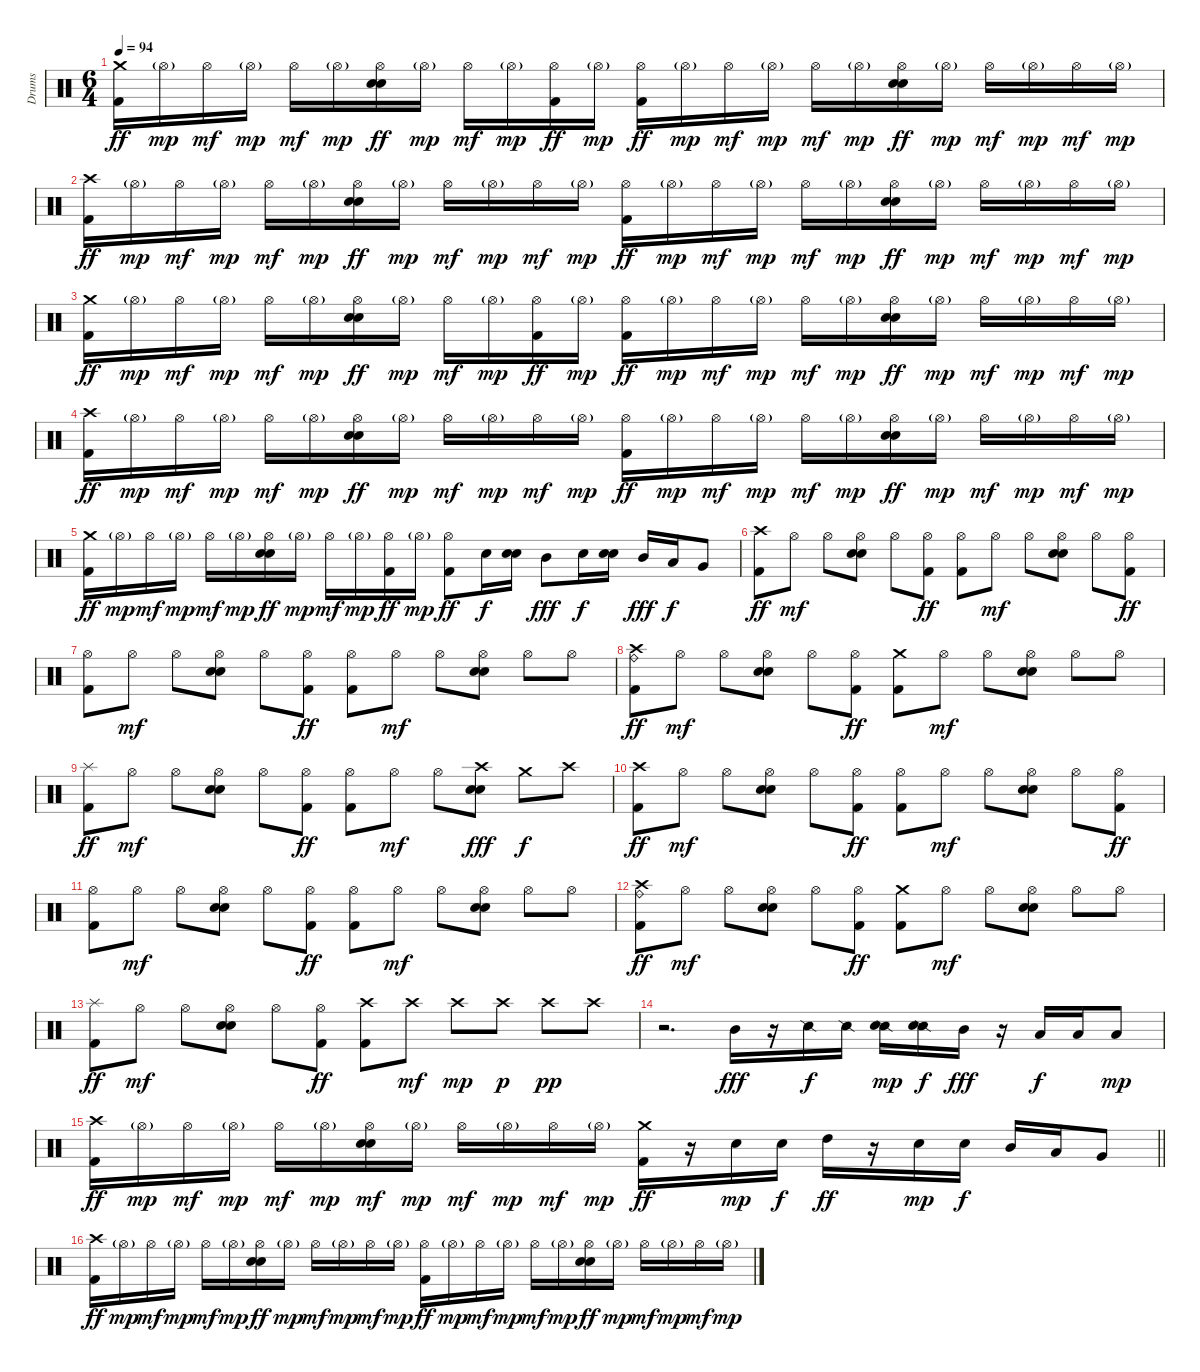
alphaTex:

\track ("Drums" "Drums") {instrument percussion}
\staff {score}
\articulation defaults
\ts (6 4)
\tempo 94
\clef neutral
\ks c
("Crash medium (hit)" "Kick (hit) 2").16{dy ff} "Hi-Hat (open)"{g}.16{dy mp} "Hi-Hat (open)".16{dy mf} "Hi-Hat (open)"{g}.16{dy mp} "Hi-Hat (open)".16{dy mf} "Hi-Hat (open)"{g}.16{dy mp} ("Hi-Hat (open)" "Electric Snare (hit)" "Metronome (bell)").16{dy ff} "Hi-Hat (open)"{g}.16{dy mp} "Hi-Hat (open)".16{dy mf} "Hi-Hat (open)"{g}.16{dy mp} ("Hi-Hat (open)" "Kick (hit) 2").16{dy ff} "Hi-Hat (open)"{g}.16{dy mp} ("Hi-Hat (open)" "Kick (hit) 2").16{dy ff} "Hi-Hat (open)"{g}.16{dy mp} "Hi-Hat (open)".16{dy mf} "Hi-Hat (open)"{g}.16{dy mp} "Hi-Hat (open)".16{dy mf} "Hi-Hat (open)"{g}.16{dy mp} ("Hi-Hat (open)" "Electric Snare (hit)" "Metronome (bell)").16{dy ff} "Hi-Hat (open)"{g}.16{dy mp} "Hi-Hat (open)".16{dy mf} "Hi-Hat (open)"{g}.16{dy mp} "Hi-Hat (open)".16{dy mf} "Hi-Hat (open)"{g}.16{dy mp} |
("Crash high (hit)" "Kick (hit) 2").16{dy ff} "Hi-Hat (open)"{g}.16{dy mp} "Hi-Hat (open)".16{dy mf} "Hi-Hat (open)"{g}.16{dy mp} "Hi-Hat (open)".16{dy mf} "Hi-Hat (open)"{g}.16{dy mp} ("Hi-Hat (open)" "Electric Snare (hit)" "Metronome (bell)").16{dy ff} "Hi-Hat (open)"{g}.16{dy mp} "Hi-Hat (open)".16{dy mf} "Hi-Hat (open)"{g}.16{dy mp} "Hi-Hat (open)".16{dy mf} "Hi-Hat (open)"{g}.16{dy mp} ("Hi-Hat (open)" "Kick (hit) 2").16{dy ff} "Hi-Hat (open)"{g}.16{dy mp} "Hi-Hat (open)".16{dy mf} "Hi-Hat (open)"{g}.16{dy mp} "Hi-Hat (open)".16{dy mf} "Hi-Hat (open)"{g}.16{dy mp} ("Hi-Hat (open)" "Electric Snare (hit)" "Metronome (bell)").16{dy ff} "Hi-Hat (open)"{g}.16{dy mp} "Hi-Hat (open)".16{dy mf} "Hi-Hat (open)"{g}.16{dy mp} "Hi-Hat (open)".16{dy mf} "Hi-Hat (open)"{g}.16{dy mp} |
("Crash medium (hit)" "Kick (hit) 2").16{dy ff} "Hi-Hat (open)"{g}.16{dy mp} "Hi-Hat (open)".16{dy mf} "Hi-Hat (open)"{g}.16{dy mp} "Hi-Hat (open)".16{dy mf} "Hi-Hat (open)"{g}.16{dy mp} ("Hi-Hat (open)" "Electric Snare (hit)" "Metronome (bell)").16{dy ff} "Hi-Hat (open)"{g}.16{dy mp} "Hi-Hat (open)".16{dy mf} "Hi-Hat (open)"{g}.16{dy mp} ("Hi-Hat (open)" "Kick (hit) 2").16{dy ff} "Hi-Hat (open)"{g}.16{dy mp} ("Hi-Hat (open)" "Kick (hit) 2").16{dy ff} "Hi-Hat (open)"{g}.16{dy mp} "Hi-Hat (open)".16{dy mf} "Hi-Hat (open)"{g}.16{dy mp} "Hi-Hat (open)".16{dy mf} "Hi-Hat (open)"{g}.16{dy mp} ("Hi-Hat (open)" "Electric Snare (hit)" "Metronome (bell)").16{dy ff} "Hi-Hat (open)"{g}.16{dy mp} "Hi-Hat (open)".16{dy mf} "Hi-Hat (open)"{g}.16{dy mp} "Hi-Hat (open)".16{dy mf} "Hi-Hat (open)"{g}.16{dy mp} |
("Crash high (hit)" "Kick (hit) 2").16{dy ff} "Hi-Hat (open)"{g}.16{dy mp} "Hi-Hat (open)".16{dy mf} "Hi-Hat (open)"{g}.16{dy mp} "Hi-Hat (open)".16{dy mf} "Hi-Hat (open)"{g}.16{dy mp} ("Hi-Hat (open)" "Electric Snare (hit)" "Metronome (bell)").16{dy ff} "Hi-Hat (open)"{g}.16{dy mp} "Hi-Hat (open)".16{dy mf} "Hi-Hat (open)"{g}.16{dy mp} "Hi-Hat (open)".16{dy mf} "Hi-Hat (open)"{g}.16{dy mp} ("Hi-Hat (open)" "Kick (hit) 2").16{dy ff} "Hi-Hat (open)"{g}.16{dy mp} "Hi-Hat (open)".16{dy mf} "Hi-Hat (open)"{g}.16{dy mp} "Hi-Hat (open)".16{dy mf} "Hi-Hat (open)"{g}.16{dy mp} ("Hi-Hat (open)" "Electric Snare (hit)" "Metronome (bell)").16{dy ff} "Hi-Hat (open)"{g}.16{dy mp} "Hi-Hat (open)".16{dy mf} "Hi-Hat (open)"{g}.16{dy mp} "Hi-Hat (open)".16{dy mf} "Hi-Hat (open)"{g}.16{dy mp} |
("Crash medium (hit)" "Kick (hit) 2").16{dy ff} "Hi-Hat (open)"{g}.16{dy mp} "Hi-Hat (open)".16{dy mf} "Hi-Hat (open)"{g}.16{dy mp} "Hi-Hat (open)".16{dy mf} "Hi-Hat (open)"{g}.16{dy mp} ("Hi-Hat (open)" "Electric Snare (hit)" "Metronome (bell)").16{dy ff} "Hi-Hat (open)"{g}.16{dy mp} "Hi-Hat (open)".16{dy mf} "Hi-Hat (open)"{g}.16{dy mp} ("Hi-Hat (open)" "Kick (hit) 2").16{dy ff} "Hi-Hat (open)"{g}.16{dy mp} ("Hi-Hat (open)" "Kick (hit) 2").8{dy ff} "Electric Snare (hit)".16{dy f} ("Electric Snare (hit)" "Metronome (bell)").16 "Mid Tom (hit)".8{dy fff} "Electric Snare (hit)".16{dy f} ("Electric Snare (hit)" "Metronome (bell)").16 "Mid Tom (hit)".16{dy fff} "Low Tom (hit)".16{dy f} "Very Low Tom (hit)".8 |
("Crash high (hit)" "Kick (hit) 2").8{dy ff} "Hi-Hat (open)".8{dy mf} "Hi-Hat (open)".8 ("Hi-Hat (open)" "Electric Snare (hit)" "Metronome (bell)").8 "Hi-Hat (open)".8 ("Hi-Hat (open)" "Kick (hit) 2").8{dy ff} ("Hi-Hat (open)" "Kick (hit) 2").8 "Hi-Hat (open)".8{dy mf} "Hi-Hat (open)".8 ("Hi-Hat (open)" "Electric Snare (hit)" "Metronome (bell)").8 "Hi-Hat (open)".8 ("Hi-Hat (open)" "Kick (hit) 2").8{dy ff} |
("Hi-Hat (open)" "Kick (hit) 2").8 "Hi-Hat (open)".8{dy mf} "Hi-Hat (open)".8 ("Hi-Hat (open)" "Electric Snare (hit)" "Metronome (bell)").8 "Hi-Hat (open)".8 ("Hi-Hat (open)" "Kick (hit) 2").8{dy ff} ("Hi-Hat (open)" "Kick (hit) 2").8 "Hi-Hat (open)".8{dy mf} "Hi-Hat (open)".8 ("Hi-Hat (open)" "Electric Snare (hit)" "Metronome (bell)").8 "Hi-Hat (open)".8 "Hi-Hat (open)".8 |
("Crash high (hit)" "Ride (bell)" "Kick (hit) 2").8{dy ff} "Hi-Hat (open)".8{dy mf} "Hi-Hat (open)".8 ("Hi-Hat (open)" "Electric Snare (hit)" "Metronome (bell)").8 "Hi-Hat (open)".8 ("Hi-Hat (open)" "Kick (hit) 2").8{dy ff} ("Crash medium (hit)" "Kick (hit) 2").8 "Hi-Hat (open)".8{dy mf} "Hi-Hat (open)".8 ("Hi-Hat (open)" "Electric Snare (hit)" "Metronome (bell)").8 "Hi-Hat (open)".8 "Hi-Hat (open)".8 |
("Splash (hit)" "Kick (hit) 2").8{dy ff} "Hi-Hat (open)".8{dy mf} "Hi-Hat (open)".8 ("Hi-Hat (open)" "Electric Snare (hit)" "Metronome (bell)").8 "Hi-Hat (open)".8 ("Hi-Hat (open)" "Kick (hit) 2").8{dy ff} ("Hi-Hat (open)" "Kick (hit) 2").8 "Hi-Hat (open)".8{dy mf} "Hi-Hat (open)".8 ("Crash high (hit)" "Electric Snare (hit)" "Metronome (bell)").8{dy fff} "Crash medium (hit)".8{dy f} "Crash high (hit)".8 |
("Crash high (hit)" "Kick (hit) 2").8{dy ff} "Hi-Hat (open)".8{dy mf} "Hi-Hat (open)".8 ("Hi-Hat (open)" "Electric Snare (hit)" "Metronome (bell)").8 "Hi-Hat (open)".8 ("Hi-Hat (open)" "Kick (hit) 2").8{dy ff} ("Hi-Hat (open)" "Kick (hit) 2").8 "Hi-Hat (open)".8{dy mf} "Hi-Hat (open)".8 ("Hi-Hat (open)" "Electric Snare (hit)" "Metronome (bell)").8 "Hi-Hat (open)".8 ("Hi-Hat (open)" "Kick (hit) 2").8{dy ff} |
("Hi-Hat (open)" "Kick (hit) 2").8 "Hi-Hat (open)".8{dy mf} "Hi-Hat (open)".8 ("Hi-Hat (open)" "Electric Snare (hit)" "Metronome (bell)").8 "Hi-Hat (open)".8 ("Hi-Hat (open)" "Kick (hit) 2").8{dy ff} ("Hi-Hat (open)" "Kick (hit) 2").8 "Hi-Hat (open)".8{dy mf} "Hi-Hat (open)".8 ("Hi-Hat (open)" "Electric Snare (hit)" "Metronome (bell)").8 "Hi-Hat (open)".8 "Hi-Hat (open)".8 |
("Crash high (hit)" "Ride (bell)" "Kick (hit) 2").8{dy ff} "Hi-Hat (open)".8{dy mf} "Hi-Hat (open)".8 ("Hi-Hat (open)" "Electric Snare (hit)" "Metronome (bell)").8 "Hi-Hat (open)".8 ("Hi-Hat (open)" "Kick (hit) 2").8{dy ff} ("Crash medium (hit)" "Kick (hit) 2").8 "Hi-Hat (open)".8{dy mf} "Hi-Hat (open)".8 ("Hi-Hat (open)" "Electric Snare (hit)" "Metronome (bell)").8 "Hi-Hat (open)".8 "Hi-Hat (open)".8 |
("Splash (hit)" "Kick (hit) 2").8{dy ff} "Hi-Hat (open)".8{dy mf} "Hi-Hat (open)".8 ("Hi-Hat (open)" "Electric Snare (hit)" "Metronome (bell)").8 "Hi-Hat (open)".8 ("Hi-Hat (open)" "Kick (hit) 2").8{dy ff} ("Crash high (hit)" "Kick (hit) 2").8 "Crash high (hit)".8{dy mf} "Crash high (hit)".8{dy mp} "Crash high (hit)".8{dy p} "Crash high (hit)".8{dy pp} "Crash high (hit)".8 |
r.2{d} "Mid Tom (hit)".16{dy fff} r.16 "Snare (side stick) 2".16{dy f} "Snare (side stick) 2".16 ("Snare (side stick) 2" "Electric Snare (hit)").16{dy mp} ("Snare (side stick) 2" "Electric Snare (hit)").16{dy f} "Mid Tom (hit)".16{dy fff} r.16 "Low Tom (hit)".16{dy f} "Low Tom (hit)".16 "Low Floor Tom (hit)".8{dy mp} |
\barLineRight lightlight
("Crash high (hit)" "Kick (hit) 2").16{dy ff} "Hi-Hat (open)"{g}.16{dy mp} "Hi-Hat (open)".16{dy mf} "Hi-Hat (open)"{g}.16{dy mp} "Hi-Hat (open)".16{dy mf} "Hi-Hat (open)"{g}.16{dy mp} ("Hi-Hat (open)" "Electric Snare (hit)" "Metronome (bell)").16{dy mf} "Hi-Hat (open)"{g}.16{dy mp} "Hi-Hat (open)".16{dy mf} "Hi-Hat (open)"{g}.16{dy mp} "Hi-Hat (open)".16{dy mf} "Hi-Hat (open)"{g}.16{dy mp} ("Crash medium (hit)" "Kick (hit) 2").16{dy ff} r.16 "Electric Snare (hit)".16{dy mp} "Electric Snare (hit)".16{dy f} "High Tom (hit)".16{dy ff} r.16 "Electric Snare (hit)".16{dy mp} "Electric Snare (hit)".16{dy f} "Mid Tom (hit)".16 "Low Tom (hit)".16 "Very Low Tom (hit)".8 |
("Crash high (hit)" "Kick (hit) 2").16{dy ff} "Hi-Hat (open)"{g}.16{dy mp} "Hi-Hat (open)".16{dy mf} "Hi-Hat (open)"{g}.16{dy mp} "Hi-Hat (open)".16{dy mf} "Hi-Hat (open)"{g}.16{dy mp} ("Hi-Hat (open)" "Electric Snare (hit)" "Metronome (bell)").16{dy ff} "Hi-Hat (open)"{g}.16{dy mp} "Hi-Hat (open)".16{dy mf} "Hi-Hat (open)"{g}.16{dy mp} "Hi-Hat (open)".16{dy mf} "Hi-Hat (open)"{g}.16{dy mp} ("Hi-Hat (open)" "Kick (hit) 2").16{dy ff} "Hi-Hat (open)"{g}.16{dy mp} "Hi-Hat (open)".16{dy mf} "Hi-Hat (open)"{g}.16{dy mp} "Hi-Hat (open)".16{dy mf} "Hi-Hat (open)"{g}.16{dy mp} ("Hi-Hat (open)" "Electric Snare (hit)" "Metronome (bell)").16{dy ff} "Hi-Hat (open)"{g}.16{dy mp} "Hi-Hat (open)".16{dy mf} "Hi-Hat (open)"{g}.16{dy mp} "Hi-Hat (open)".16{dy mf} "Hi-Hat (open)"{g}.16{dy mp}
